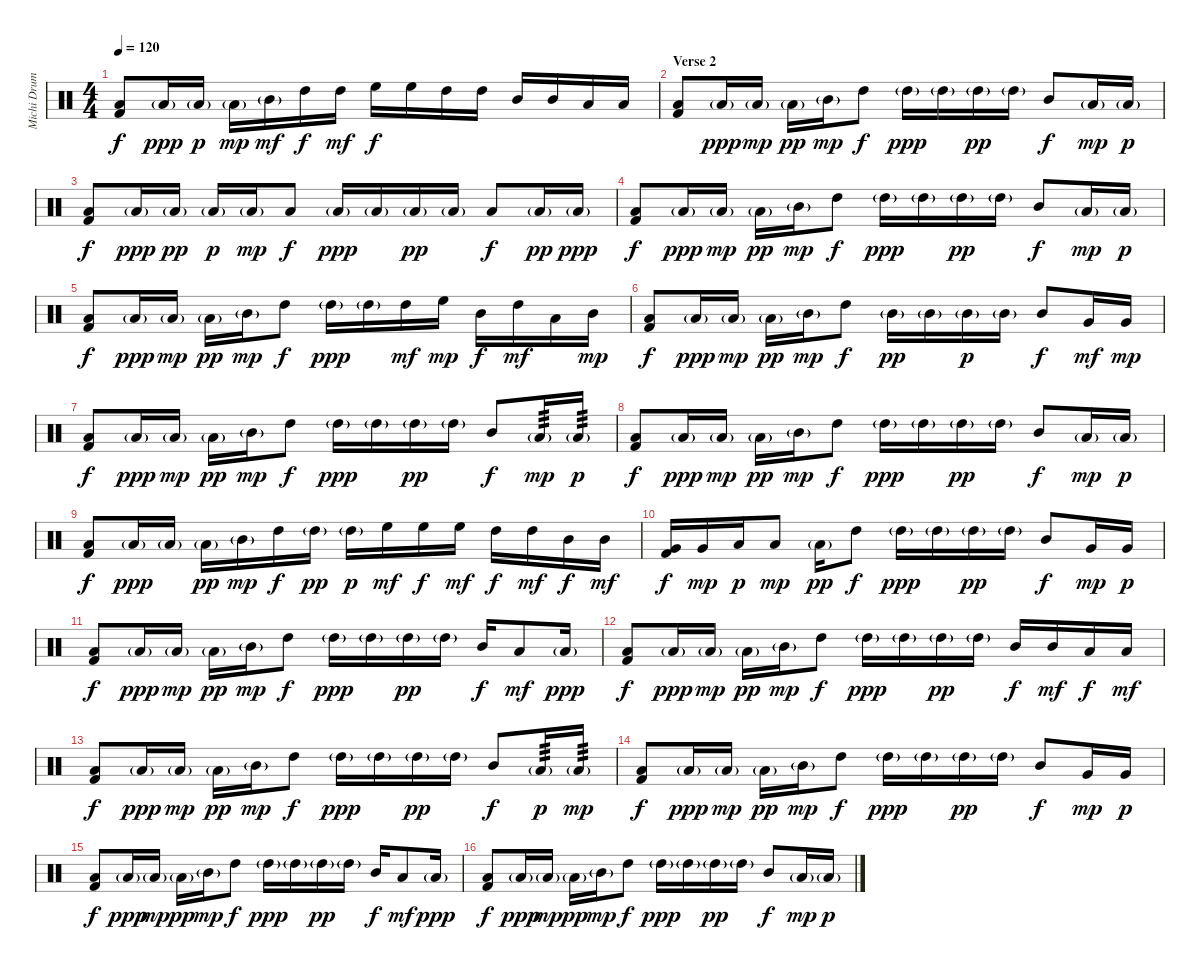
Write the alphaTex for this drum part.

\track ("Michi Drums" "Michi Drum") {instrument percussion}
\staff {score}
\articulation defaults
\ts (4 4)
\tempo 120
\clef neutral
\ks c
("Low Floor Tom (hit)" "Kick (hit) 2").8{dy f} "Low Floor Tom (hit)"{g}.16{dy ppp} "Low Tom (hit)"{g}.16{dy p} "Low Tom (hit)"{g}.16{dy mp} "Mid Tom (hit)"{g}.16{dy mf} "High Tom (hit)".16{dy f} "High Tom (hit)".16{dy mf} "High Floor Tom (hit)".16{dy f} "High Floor Tom (hit)".16 "High Tom (hit)".16 "High Tom (hit)".16 "Mid Tom (hit)".16 "Mid Tom (hit)".16 "Low Tom (hit)".16 "Low Tom (hit)".16 |
\section ("" "Verse 2")
("Low Floor Tom (hit)" "Kick (hit) 2").8 "Low Floor Tom (hit)"{g}.16{dy ppp} "Low Tom (hit)"{g}.16{dy mp} "Low Tom (hit)"{g}.16{dy pp} "Mid Tom (hit)"{g}.16{dy mp} "High Tom (hit)".8{dy f} "High Tom (hit)"{g}.16{dy ppp} "High Tom (hit)"{g}.16 "High Tom (hit)"{g}.16{dy pp} "High Tom (hit)"{g}.16 "Mid Tom (hit)".8{dy f} "Low Tom (hit)"{g}.16{dy mp} "Low Tom (hit)"{g}.16{dy p} |
("Low Floor Tom (hit)" "Kick (hit) 2").8{dy f} "Low Floor Tom (hit)"{g}.16{dy ppp} "Low Tom (hit)"{g}.16{dy pp} "Low Tom (hit)"{g}.16{dy p} "Low Tom (hit)"{g}.16{dy mp} "Low Tom (hit)".8{dy f} "Low Tom (hit)"{g}.16{dy ppp} "Low Tom (hit)"{g}.16 "Low Tom (hit)"{g}.16{dy pp} "Low Tom (hit)"{g}.16 "Low Floor Tom (hit)".8{dy f} "Low Floor Tom (hit)"{g}.16{dy pp} "Low Floor Tom (hit)"{g}.16{dy ppp} |
("Low Floor Tom (hit)" "Kick (hit) 2").8{dy f} "Low Floor Tom (hit)"{g}.16{dy ppp} "Low Tom (hit)"{g}.16{dy mp} "Low Tom (hit)"{g}.16{dy pp} "Mid Tom (hit)"{g}.16{dy mp} "High Tom (hit)".8{dy f} "High Tom (hit)"{g}.16{dy ppp} "High Tom (hit)"{g}.16 "High Tom (hit)"{g}.16{dy pp} "High Tom (hit)"{g}.16 "Mid Tom (hit)".8{dy f} "Low Tom (hit)"{g}.16{dy mp} "Low Tom (hit)"{g}.16{dy p} |
("Low Floor Tom (hit)" "Kick (hit) 2").8{dy f} "Low Floor Tom (hit)"{g}.16{dy ppp} "Low Tom (hit)"{g}.16{dy mp} "Low Tom (hit)"{g}.16{dy pp} "Mid Tom (hit)"{g}.16{dy mp} "High Tom (hit)".8{dy f} "High Tom (hit)"{g}.16{dy ppp} "High Tom (hit)"{g}.16 "High Tom (hit)".16{dy mf} "High Floor Tom (hit)".16{dy mp} "Mid Tom (hit)".16{dy f} "High Tom (hit)".16{dy mf} "Low Tom (hit)".16 "Mid Tom (hit)".16{dy mp} |
("Low Floor Tom (hit)" "Kick (hit) 2").8{dy f} "Low Floor Tom (hit)"{g}.16{dy ppp} "Low Tom (hit)"{g}.16{dy mp} "Low Tom (hit)"{g}.16{dy pp} "Mid Tom (hit)"{g}.16{dy mp} "High Tom (hit)".8{dy f} "Mid Tom (hit)"{g}.16{dy pp} "Mid Tom (hit)"{g}.16 "Mid Tom (hit)"{g}.16{dy p} "Mid Tom (hit)"{g}.16 "Mid Tom (hit)".8{dy f} "Very Low Tom (hit)".16{dy mf} "Very Low Tom (hit)".16{dy mp} |
("Low Floor Tom (hit)" "Kick (hit) 2").8{dy f} "Low Floor Tom (hit)"{g}.16{dy ppp} "Low Tom (hit)"{g}.16{dy mp} "Low Tom (hit)"{g}.16{dy pp} "Mid Tom (hit)"{g}.16{dy mp} "High Tom (hit)".8{dy f} "High Tom (hit)"{g}.16{dy ppp} "High Tom (hit)"{g}.16 "High Tom (hit)"{g}.16{dy pp} "High Tom (hit)"{g}.16 "Mid Tom (hit)".8{dy f} "Low Tom (hit)"{g}.16{tp 3 dy mp} "Low Tom (hit)"{g}.16{tp 3 dy p} |
("Low Floor Tom (hit)" "Kick (hit) 2").8{dy f} "Low Floor Tom (hit)"{g}.16{dy ppp} "Low Tom (hit)"{g}.16{dy mp} "Low Tom (hit)"{g}.16{dy pp} "Mid Tom (hit)"{g}.16{dy mp} "High Tom (hit)".8{dy f} "High Tom (hit)"{g}.16{dy ppp} "High Tom (hit)"{g}.16 "High Tom (hit)"{g}.16{dy pp} "High Tom (hit)"{g}.16 "Mid Tom (hit)".8{dy f} "Low Tom (hit)"{g}.16{dy mp} "Low Tom (hit)"{g}.16{dy p} |
("Low Floor Tom (hit)" "Kick (hit) 2").8{dy f} "Low Floor Tom (hit)"{g}.16{dy ppp} "Low Tom (hit)"{g}.16 "Low Tom (hit)"{g}.16{dy pp} "Mid Tom (hit)"{g}.16{dy mp} "High Tom (hit)".16{dy f} "High Tom (hit)"{g}.16{dy pp} "High Tom (hit)"{g}.16{dy p} "High Floor Tom (hit)".16{dy mf} "High Floor Tom (hit)".16{dy f} "High Floor Tom (hit)".16{dy mf} "High Tom (hit)".16{dy f} "High Tom (hit)".16{dy mf} "Mid Tom (hit)".16{dy f} "Mid Tom (hit)".16{dy mf} |
("Very Low Tom (hit)" "Kick (hit) 2").16{dy f} "Very Low Tom (hit)".16{dy mp} "Low Floor Tom (hit)".16{dy p} "Low Tom (hit)".8{dy mp} "Low Tom (hit)"{g}.16{dy pp} "High Tom (hit)".8{dy f} "High Tom (hit)"{g}.16{dy ppp} "High Tom (hit)"{g}.16 "High Tom (hit)"{g}.16{dy pp} "High Tom (hit)"{g}.16 "Mid Tom (hit)".8{dy f} "Very Low Tom (hit)".16{dy mp} "Very Low Tom (hit)".16{dy p} |
("Low Floor Tom (hit)" "Kick (hit) 2").8{dy f} "Low Floor Tom (hit)"{g}.16{dy ppp} "Low Tom (hit)"{g}.16{dy mp} "Low Tom (hit)"{g}.16{dy pp} "Mid Tom (hit)"{g}.16{dy mp} "High Tom (hit)".8{dy f} "High Tom (hit)"{g}.16{dy ppp} "High Tom (hit)"{g}.16 "High Tom (hit)"{g}.16{dy pp} "High Tom (hit)"{g}.16 "Mid Tom (hit)".16{dy f} "Low Tom (hit)".8{dy mf} "Low Tom (hit)"{g}.16{dy ppp} |
("Low Floor Tom (hit)" "Kick (hit) 2").8{dy f} "Low Floor Tom (hit)"{g}.16{dy ppp} "Low Tom (hit)"{g}.16{dy mp} "Low Tom (hit)"{g}.16{dy pp} "Mid Tom (hit)"{g}.16{dy mp} "High Tom (hit)".8{dy f} "High Tom (hit)"{g}.16{dy ppp} "High Tom (hit)"{g}.16 "High Tom (hit)"{g}.16{dy pp} "High Tom (hit)"{g}.16 "Mid Tom (hit)".16{dy f} "Mid Tom (hit)".16{dy mf} "Low Tom (hit)".16{dy f} "Low Tom (hit)".16{dy mf} |
("Low Floor Tom (hit)" "Kick (hit) 2").8{dy f} "Low Floor Tom (hit)"{g}.16{dy ppp} "Low Tom (hit)"{g}.16{dy mp} "Low Tom (hit)"{g}.16{dy pp} "Mid Tom (hit)"{g}.16{dy mp} "High Tom (hit)".8{dy f} "High Tom (hit)"{g}.16{dy ppp} "High Tom (hit)"{g}.16 "High Tom (hit)"{g}.16{dy pp} "High Tom (hit)"{g}.16 "Mid Tom (hit)".8{dy f} "Low Tom (hit)"{g}.16{tp 3 dy p} "Low Tom (hit)"{g}.16{tp 3 dy mp} |
("Low Floor Tom (hit)" "Kick (hit) 2").8{dy f} "Low Floor Tom (hit)"{g}.16{dy ppp} "Low Tom (hit)"{g}.16{dy mp} "Low Tom (hit)"{g}.16{dy pp} "Mid Tom (hit)"{g}.16{dy mp} "High Tom (hit)".8{dy f} "High Tom (hit)"{g}.16{dy ppp} "High Tom (hit)"{g}.16 "High Tom (hit)"{g}.16{dy pp} "High Tom (hit)"{g}.16 "Mid Tom (hit)".8{dy f} "Very Low Tom (hit)".16{dy mp} "Very Low Tom (hit)".16{dy p} |
("Low Floor Tom (hit)" "Kick (hit) 2").8{dy f} "Low Floor Tom (hit)"{g}.16{dy ppp} "Low Tom (hit)"{g}.16{dy mp} "Low Tom (hit)"{g}.16{dy pp} "Mid Tom (hit)"{g}.16{dy mp} "High Tom (hit)".8{dy f} "High Tom (hit)"{g}.16{dy ppp} "High Tom (hit)"{g}.16 "High Tom (hit)"{g}.16{dy pp} "High Tom (hit)"{g}.16 "Mid Tom (hit)".16{dy f} "Low Tom (hit)".8{dy mf} "Low Tom (hit)"{g}.16{dy ppp} |
("Low Floor Tom (hit)" "Kick (hit) 2").8{dy f} "Low Floor Tom (hit)"{g}.16{dy ppp} "Low Tom (hit)"{g}.16{dy mp} "Low Tom (hit)"{g}.16{dy pp} "Mid Tom (hit)"{g}.16{dy mp} "High Tom (hit)".8{dy f} "High Tom (hit)"{g}.16{dy ppp} "High Tom (hit)"{g}.16 "High Tom (hit)"{g}.16{dy pp} "High Tom (hit)"{g}.16 "Mid Tom (hit)".8{dy f} "Low Tom (hit)"{g}.16{dy mp} "Low Tom (hit)"{g}.16{dy p}
